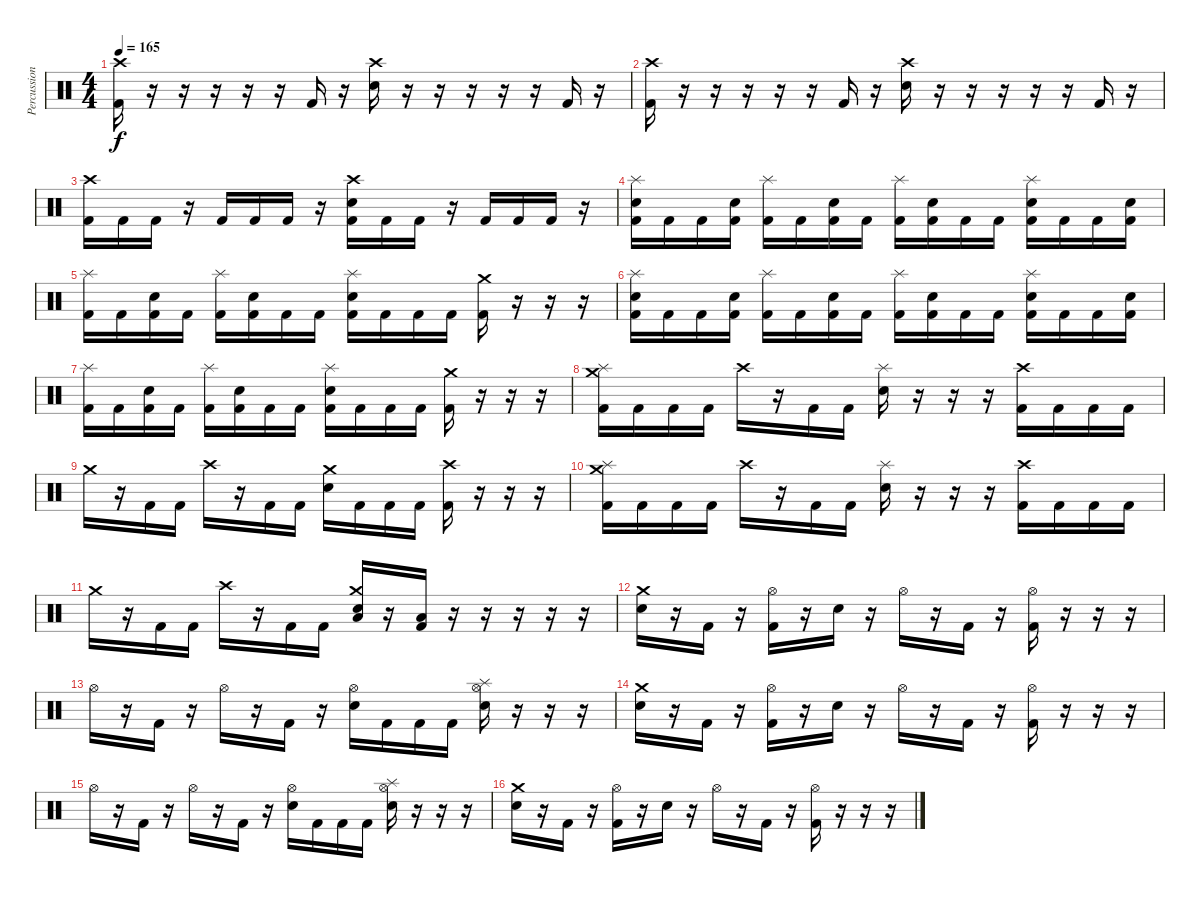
\track ("Percussion" "Percussion") {instrument percussion}
\staff {score}
\articulation defaults
\ts (4 4)
\tempo 165
\clef neutral
\ks c
("Crash high (hit)" "Kick (hit) 2").16{dy f} r.16 r.16 r.16 r.16 r.16 "Kick (hit) 2".16 r.16 ("Crash high (hit)" "Electric Snare (hit)").16 r.16 r.16 r.16 r.16 r.16 "Kick (hit) 2".16 r.16 |
("Crash high (hit)" "Kick (hit) 2").16 r.16 r.16 r.16 r.16 r.16 "Kick (hit) 2".16 r.16 ("Crash high (hit)" "Electric Snare (hit)").16 r.16 r.16 r.16 r.16 r.16 "Kick (hit) 2".16 r.16 |
("Crash high (hit)" "Kick (hit) 2").16 "Kick (hit) 2".16 "Kick (hit) 2".16 r.16 "Kick (hit) 2".16 "Kick (hit) 2".16 "Kick (hit) 2".16 r.16 ("Crash high (hit)" "Electric Snare (hit)" "Kick (hit) 2").16 "Kick (hit) 2".16 "Kick (hit) 2".16 r.16 "Kick (hit) 2".16 "Kick (hit) 2".16 "Kick (hit) 2".16 r.16 |
("Splash (hit)" "Electric Snare (hit)" "Kick (hit) 2").16 "Kick (hit) 2".16 "Kick (hit) 2".16 ("Electric Snare (hit)" "Kick (hit) 2").16 ("Splash (hit)" "Kick (hit) 2").16 "Kick (hit) 2".16 ("Electric Snare (hit)" "Kick (hit) 2").16 "Kick (hit) 2".16 ("Splash (hit)" "Kick (hit) 2").16 ("Electric Snare (hit)" "Kick (hit) 2").16 "Kick (hit) 2".16 "Kick (hit) 2".16 ("Splash (hit)" "Electric Snare (hit)" "Kick (hit) 2").16 "Kick (hit) 2".16 "Kick (hit) 2".16 ("Electric Snare (hit)" "Kick (hit) 2").16 |
("Splash (hit)" "Kick (hit) 2").16 "Kick (hit) 2".16 ("Electric Snare (hit)" "Kick (hit) 2").16 "Kick (hit) 2".16 ("Splash (hit)" "Kick (hit) 2").16 ("Electric Snare (hit)" "Kick (hit) 2").16 "Kick (hit) 2".16 "Kick (hit) 2".16 ("Splash (hit)" "Electric Snare (hit)" "Kick (hit) 2").16 "Kick (hit) 2".16 "Kick (hit) 2".16 "Kick (hit) 2".16 ("Crash medium (hit)" "Kick (hit) 2").16 r.16 r.16 r.16 |
("Splash (hit)" "Electric Snare (hit)" "Kick (hit) 2").16 "Kick (hit) 2".16 "Kick (hit) 2".16 ("Electric Snare (hit)" "Kick (hit) 2").16 ("Splash (hit)" "Kick (hit) 2").16 "Kick (hit) 2".16 ("Electric Snare (hit)" "Kick (hit) 2").16 "Kick (hit) 2".16 ("Splash (hit)" "Kick (hit) 2").16 ("Electric Snare (hit)" "Kick (hit) 2").16 "Kick (hit) 2".16 "Kick (hit) 2".16 ("Splash (hit)" "Electric Snare (hit)" "Kick (hit) 2").16 "Kick (hit) 2".16 "Kick (hit) 2".16 ("Electric Snare (hit)" "Kick (hit) 2").16 |
("Splash (hit)" "Kick (hit) 2").16 "Kick (hit) 2".16 ("Electric Snare (hit)" "Kick (hit) 2").16 "Kick (hit) 2".16 ("Splash (hit)" "Kick (hit) 2").16 ("Electric Snare (hit)" "Kick (hit) 2").16 "Kick (hit) 2".16 "Kick (hit) 2".16 ("Splash (hit)" "Electric Snare (hit)" "Kick (hit) 2").16 "Kick (hit) 2".16 "Kick (hit) 2".16 "Kick (hit) 2".16 ("Crash medium (hit)" "Kick (hit) 2").16 r.16 r.16 r.16 |
("Splash (hit)" "Crash medium (hit)" "Kick (hit) 2").16 "Kick (hit) 2".16 "Kick (hit) 2".16 "Kick (hit) 2".16 "Crash high (hit)".16 r.16 "Kick (hit) 2".16 "Kick (hit) 2".16 ("Splash (hit)" "Electric Snare (hit)").16 r.16 r.16 r.16 ("Crash high (hit)" "Kick (hit) 2").16 "Kick (hit) 2".16 "Kick (hit) 2".16 "Kick (hit) 2".16 |
"Crash medium (hit)".16 r.16 "Kick (hit) 2".16 "Kick (hit) 2".16 "Crash high (hit)".16 r.16 "Kick (hit) 2".16 "Kick (hit) 2".16 ("Crash medium (hit)" "Electric Snare (hit)").16 "Kick (hit) 2".16 "Kick (hit) 2".16 "Kick (hit) 2".16 ("Crash high (hit)" "Kick (hit) 2").16 r.16 r.16 r.16 |
("Splash (hit)" "Crash medium (hit)" "Kick (hit) 2").16 "Kick (hit) 2".16 "Kick (hit) 2".16 "Kick (hit) 2".16 "Crash high (hit)".16 r.16 "Kick (hit) 2".16 "Kick (hit) 2".16 ("Splash (hit)" "Electric Snare (hit)").16 r.16 r.16 r.16 ("Crash high (hit)" "Kick (hit) 2").16 "Kick (hit) 2".16 "Kick (hit) 2".16 "Kick (hit) 2".16 |
"Crash medium (hit)".16 r.16 "Kick (hit) 2".16 "Kick (hit) 2".16 "Crash high (hit)".16 r.16 "Kick (hit) 2".16 "Kick (hit) 2".16 ("Crash medium (hit)" "Electric Snare (hit)" "Low Floor Tom (hit)").16 r.16 ("Low Floor Tom (hit)" "Kick (hit) 2").16 r.16 r.16 r.16 r.16 r.16 |
("Crash medium (hit)" "Electric Snare (hit)").16 r.16 "Kick (hit) 2".16 r.16 ("Hi-Hat (open)" "Kick (hit) 2").16 r.16 "Electric Snare (hit)".16 r.16 "Hi-Hat (open)".16 r.16 "Kick (hit) 2".16 r.16 ("Hi-Hat (open)" "Kick (hit) 2").16 r.16 r.16 r.16 |
"Hi-Hat (open)".16 r.16 "Kick (hit) 2".16 r.16 "Hi-Hat (open)".16 r.16 "Kick (hit) 2".16 r.16 ("Hi-Hat (open)" "Electric Snare (hit)").16 "Kick (hit) 2".16 "Kick (hit) 2".16 "Kick (hit) 2".16 ("Hi-Hat (open)" "Splash (hit)" "Electric Snare (hit)").16 r.16 r.16 r.16 |
("Crash medium (hit)" "Electric Snare (hit)").16 r.16 "Kick (hit) 2".16 r.16 ("Hi-Hat (open)" "Kick (hit) 2").16 r.16 "Electric Snare (hit)".16 r.16 "Hi-Hat (open)".16 r.16 "Kick (hit) 2".16 r.16 ("Hi-Hat (open)" "Kick (hit) 2").16 r.16 r.16 r.16 |
"Hi-Hat (open)".16 r.16 "Kick (hit) 2".16 r.16 "Hi-Hat (open)".16 r.16 "Kick (hit) 2".16 r.16 ("Hi-Hat (open)" "Electric Snare (hit)").16 "Kick (hit) 2".16 "Kick (hit) 2".16 "Kick (hit) 2".16 ("Hi-Hat (open)" "Splash (hit)" "Electric Snare (hit)").16 r.16 r.16 r.16 |
("Crash medium (hit)" "Electric Snare (hit)").16 r.16 "Kick (hit) 2".16 r.16 ("Hi-Hat (open)" "Kick (hit) 2").16 r.16 "Electric Snare (hit)".16 r.16 "Hi-Hat (open)".16 r.16 "Kick (hit) 2".16 r.16 ("Hi-Hat (open)" "Kick (hit) 2").16 r.16 r.16 r.16
